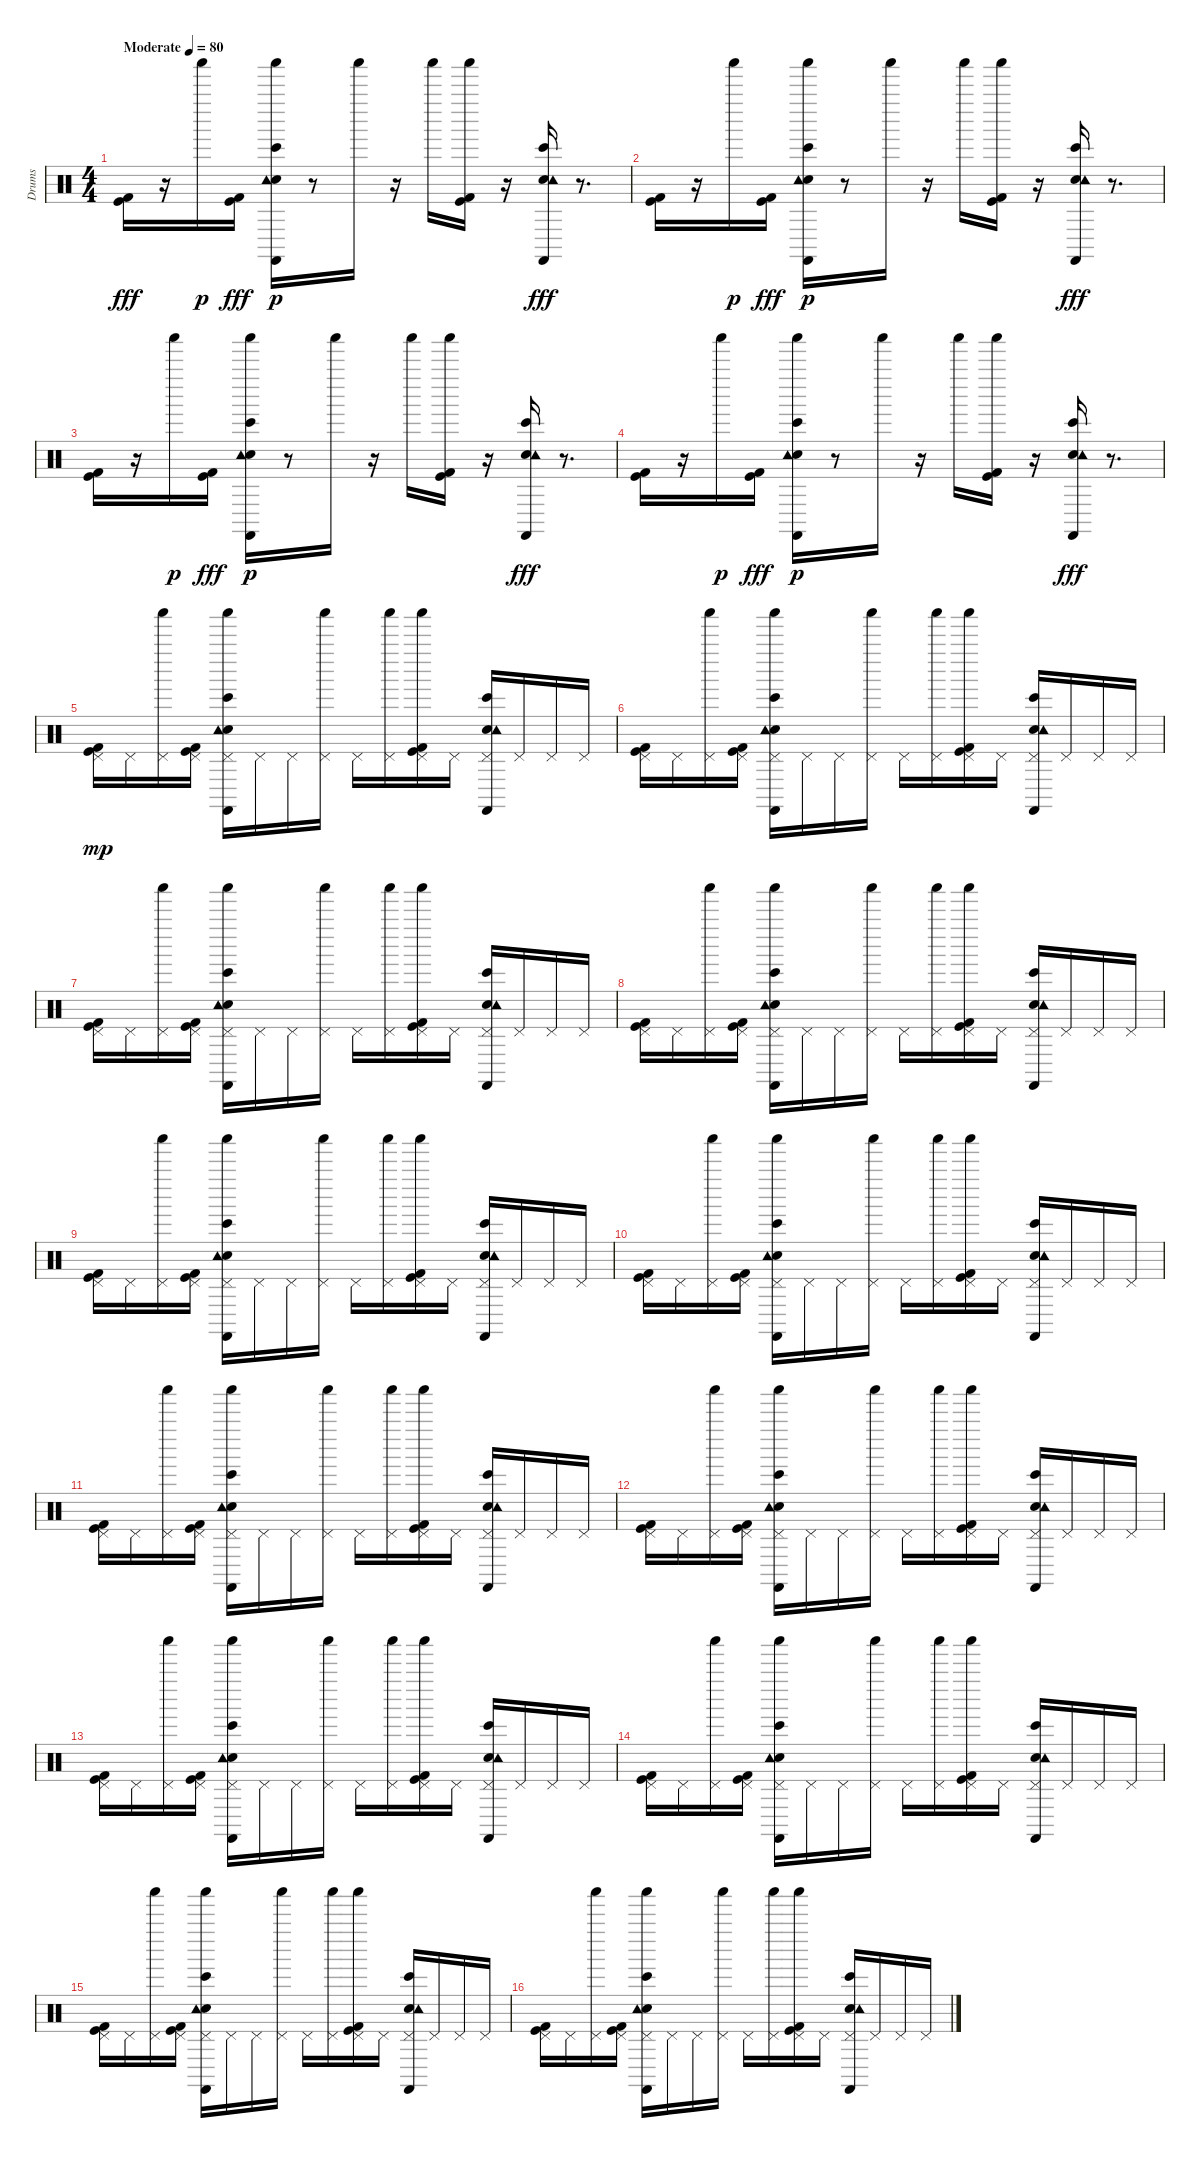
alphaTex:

\track ("Drums" "Drums") {instrument percussion}
\staff {score}
\articulation defaults
\ts (4 4)
\tempo (80 "Moderate")
\clef neutral
\ks c
("Kick (hit)" "Kick (hit) 2").16{dy fff} r.16 "Shaker (hit)".16{dy p} ("Kick (hit)" "Kick (hit) 2").16{dy fff} ("Castanets (hit)" "Hand Clap (hit)" "Shaker (hit)" "Tambourine (hit)" "Bongo High (hit)").16{dy p} r.8 "Shaker (hit)".16 r.16 "Shaker (hit)".16 ("Kick (hit)" "Kick (hit) 2" "Shaker (hit)").16 r.16 ("Castanets (hit)" "Hand Clap (hit)" "Tambourine (hit)" "Bongo High (hit)").16{dy fff} r.8{d} |
("Kick (hit)" "Kick (hit) 2").16 r.16 "Shaker (hit)".16{dy p} ("Kick (hit)" "Kick (hit) 2").16{dy fff} ("Castanets (hit)" "Hand Clap (hit)" "Shaker (hit)" "Tambourine (hit)" "Bongo High (hit)").16{dy p} r.8 "Shaker (hit)".16 r.16 "Shaker (hit)".16 ("Kick (hit)" "Kick (hit) 2" "Shaker (hit)").16 r.16 ("Castanets (hit)" "Hand Clap (hit)" "Tambourine (hit)" "Bongo High (hit)").16{dy fff} r.8{d} |
("Kick (hit)" "Kick (hit) 2").16 r.16 "Shaker (hit)".16{dy p} ("Kick (hit)" "Kick (hit) 2").16{dy fff} ("Castanets (hit)" "Hand Clap (hit)" "Shaker (hit)" "Tambourine (hit)" "Bongo High (hit)").16{dy p} r.8 "Shaker (hit)".16 r.16 "Shaker (hit)".16 ("Kick (hit)" "Kick (hit) 2" "Shaker (hit)").16 r.16 ("Castanets (hit)" "Hand Clap (hit)" "Tambourine (hit)" "Bongo High (hit)").16{dy fff} r.8{d} |
("Kick (hit)" "Kick (hit) 2").16 r.16 "Shaker (hit)".16{dy p} ("Kick (hit)" "Kick (hit) 2").16{dy fff} ("Castanets (hit)" "Hand Clap (hit)" "Shaker (hit)" "Tambourine (hit)" "Bongo High (hit)").16{dy p} r.8 "Shaker (hit)".16 r.16 "Shaker (hit)".16 ("Kick (hit)" "Kick (hit) 2" "Shaker (hit)").16 r.16 ("Castanets (hit)" "Hand Clap (hit)" "Tambourine (hit)" "Bongo High (hit)").16{dy fff} r.8{d} |
("Kick (hit)" "Kick (hit) 2" "Pedal Hi-Hat (hit)").16{dy mp} "Pedal Hi-Hat (hit)".16 ("Shaker (hit)" "Pedal Hi-Hat (hit)").16 ("Kick (hit)" "Kick (hit) 2" "Pedal Hi-Hat (hit)").16 ("Castanets (hit)" "Hand Clap (hit)" "Shaker (hit)" "Tambourine (hit)" "Bongo High (hit)" "Pedal Hi-Hat (hit)").16 "Pedal Hi-Hat (hit)".16 "Pedal Hi-Hat (hit)".16 ("Shaker (hit)" "Pedal Hi-Hat (hit)").16 "Pedal Hi-Hat (hit)".16 ("Shaker (hit)" "Pedal Hi-Hat (hit)").16 ("Kick (hit)" "Kick (hit) 2" "Shaker (hit)" "Pedal Hi-Hat (hit)").16 "Pedal Hi-Hat (hit)".16 ("Castanets (hit)" "Hand Clap (hit)" "Tambourine (hit)" "Bongo High (hit)" "Pedal Hi-Hat (hit)").16 "Pedal Hi-Hat (hit)".16 "Pedal Hi-Hat (hit)".16 "Pedal Hi-Hat (hit)".16 |
("Kick (hit)" "Kick (hit) 2" "Pedal Hi-Hat (hit)").16 "Pedal Hi-Hat (hit)".16 ("Shaker (hit)" "Pedal Hi-Hat (hit)").16 ("Kick (hit)" "Kick (hit) 2" "Pedal Hi-Hat (hit)").16 ("Castanets (hit)" "Hand Clap (hit)" "Shaker (hit)" "Tambourine (hit)" "Bongo High (hit)" "Pedal Hi-Hat (hit)").16 "Pedal Hi-Hat (hit)".16 "Pedal Hi-Hat (hit)".16 ("Shaker (hit)" "Pedal Hi-Hat (hit)").16 "Pedal Hi-Hat (hit)".16 ("Shaker (hit)" "Pedal Hi-Hat (hit)").16 ("Kick (hit)" "Kick (hit) 2" "Shaker (hit)" "Pedal Hi-Hat (hit)").16 "Pedal Hi-Hat (hit)".16 ("Castanets (hit)" "Hand Clap (hit)" "Tambourine (hit)" "Bongo High (hit)" "Pedal Hi-Hat (hit)").16 "Pedal Hi-Hat (hit)".16 "Pedal Hi-Hat (hit)".16 "Pedal Hi-Hat (hit)".16 |
("Kick (hit)" "Kick (hit) 2" "Pedal Hi-Hat (hit)").16 "Pedal Hi-Hat (hit)".16 ("Shaker (hit)" "Pedal Hi-Hat (hit)").16 ("Kick (hit)" "Kick (hit) 2" "Pedal Hi-Hat (hit)").16 ("Castanets (hit)" "Hand Clap (hit)" "Shaker (hit)" "Tambourine (hit)" "Bongo High (hit)" "Pedal Hi-Hat (hit)").16 "Pedal Hi-Hat (hit)".16 "Pedal Hi-Hat (hit)".16 ("Shaker (hit)" "Pedal Hi-Hat (hit)").16 "Pedal Hi-Hat (hit)".16 ("Shaker (hit)" "Pedal Hi-Hat (hit)").16 ("Kick (hit)" "Kick (hit) 2" "Shaker (hit)" "Pedal Hi-Hat (hit)").16 "Pedal Hi-Hat (hit)".16 ("Castanets (hit)" "Hand Clap (hit)" "Tambourine (hit)" "Bongo High (hit)" "Pedal Hi-Hat (hit)").16 "Pedal Hi-Hat (hit)".16 "Pedal Hi-Hat (hit)".16 "Pedal Hi-Hat (hit)".16 |
("Kick (hit)" "Kick (hit) 2" "Pedal Hi-Hat (hit)").16 "Pedal Hi-Hat (hit)".16 ("Shaker (hit)" "Pedal Hi-Hat (hit)").16 ("Kick (hit)" "Kick (hit) 2" "Pedal Hi-Hat (hit)").16 ("Castanets (hit)" "Hand Clap (hit)" "Shaker (hit)" "Tambourine (hit)" "Bongo High (hit)" "Pedal Hi-Hat (hit)").16 "Pedal Hi-Hat (hit)".16 "Pedal Hi-Hat (hit)".16 ("Shaker (hit)" "Pedal Hi-Hat (hit)").16 "Pedal Hi-Hat (hit)".16 ("Shaker (hit)" "Pedal Hi-Hat (hit)").16 ("Kick (hit)" "Kick (hit) 2" "Shaker (hit)" "Pedal Hi-Hat (hit)").16 "Pedal Hi-Hat (hit)".16 ("Castanets (hit)" "Hand Clap (hit)" "Tambourine (hit)" "Bongo High (hit)" "Pedal Hi-Hat (hit)").16 "Pedal Hi-Hat (hit)".16 "Pedal Hi-Hat (hit)".16 "Pedal Hi-Hat (hit)".16 |
("Kick (hit)" "Kick (hit) 2" "Pedal Hi-Hat (hit)").16 "Pedal Hi-Hat (hit)".16 ("Shaker (hit)" "Pedal Hi-Hat (hit)").16 ("Kick (hit)" "Kick (hit) 2" "Pedal Hi-Hat (hit)").16 ("Castanets (hit)" "Hand Clap (hit)" "Shaker (hit)" "Tambourine (hit)" "Bongo High (hit)" "Pedal Hi-Hat (hit)").16 "Pedal Hi-Hat (hit)".16 "Pedal Hi-Hat (hit)".16 ("Shaker (hit)" "Pedal Hi-Hat (hit)").16 "Pedal Hi-Hat (hit)".16 ("Shaker (hit)" "Pedal Hi-Hat (hit)").16 ("Kick (hit)" "Kick (hit) 2" "Shaker (hit)" "Pedal Hi-Hat (hit)").16 "Pedal Hi-Hat (hit)".16 ("Castanets (hit)" "Hand Clap (hit)" "Tambourine (hit)" "Bongo High (hit)" "Pedal Hi-Hat (hit)").16 "Pedal Hi-Hat (hit)".16 "Pedal Hi-Hat (hit)".16 "Pedal Hi-Hat (hit)".16 |
("Kick (hit)" "Kick (hit) 2" "Pedal Hi-Hat (hit)").16 "Pedal Hi-Hat (hit)".16 ("Shaker (hit)" "Pedal Hi-Hat (hit)").16 ("Kick (hit)" "Kick (hit) 2" "Pedal Hi-Hat (hit)").16 ("Castanets (hit)" "Hand Clap (hit)" "Shaker (hit)" "Tambourine (hit)" "Bongo High (hit)" "Pedal Hi-Hat (hit)").16 "Pedal Hi-Hat (hit)".16 "Pedal Hi-Hat (hit)".16 ("Shaker (hit)" "Pedal Hi-Hat (hit)").16 "Pedal Hi-Hat (hit)".16 ("Shaker (hit)" "Pedal Hi-Hat (hit)").16 ("Kick (hit)" "Kick (hit) 2" "Shaker (hit)" "Pedal Hi-Hat (hit)").16 "Pedal Hi-Hat (hit)".16 ("Castanets (hit)" "Hand Clap (hit)" "Tambourine (hit)" "Bongo High (hit)" "Pedal Hi-Hat (hit)").16 "Pedal Hi-Hat (hit)".16 "Pedal Hi-Hat (hit)".16 "Pedal Hi-Hat (hit)".16 |
("Kick (hit)" "Kick (hit) 2" "Pedal Hi-Hat (hit)").16 "Pedal Hi-Hat (hit)".16 ("Shaker (hit)" "Pedal Hi-Hat (hit)").16 ("Kick (hit)" "Kick (hit) 2" "Pedal Hi-Hat (hit)").16 ("Castanets (hit)" "Hand Clap (hit)" "Shaker (hit)" "Tambourine (hit)" "Bongo High (hit)" "Pedal Hi-Hat (hit)").16 "Pedal Hi-Hat (hit)".16 "Pedal Hi-Hat (hit)".16 ("Shaker (hit)" "Pedal Hi-Hat (hit)").16 "Pedal Hi-Hat (hit)".16 ("Shaker (hit)" "Pedal Hi-Hat (hit)").16 ("Kick (hit)" "Kick (hit) 2" "Shaker (hit)" "Pedal Hi-Hat (hit)").16 "Pedal Hi-Hat (hit)".16 ("Castanets (hit)" "Hand Clap (hit)" "Tambourine (hit)" "Bongo High (hit)" "Pedal Hi-Hat (hit)").16 "Pedal Hi-Hat (hit)".16 "Pedal Hi-Hat (hit)".16 "Pedal Hi-Hat (hit)".16 |
("Kick (hit)" "Kick (hit) 2" "Pedal Hi-Hat (hit)").16 "Pedal Hi-Hat (hit)".16 ("Shaker (hit)" "Pedal Hi-Hat (hit)").16 ("Kick (hit)" "Kick (hit) 2" "Pedal Hi-Hat (hit)").16 ("Castanets (hit)" "Hand Clap (hit)" "Shaker (hit)" "Tambourine (hit)" "Bongo High (hit)" "Pedal Hi-Hat (hit)").16 "Pedal Hi-Hat (hit)".16 "Pedal Hi-Hat (hit)".16 ("Shaker (hit)" "Pedal Hi-Hat (hit)").16 "Pedal Hi-Hat (hit)".16 ("Shaker (hit)" "Pedal Hi-Hat (hit)").16 ("Kick (hit)" "Kick (hit) 2" "Shaker (hit)" "Pedal Hi-Hat (hit)").16 "Pedal Hi-Hat (hit)".16 ("Castanets (hit)" "Hand Clap (hit)" "Tambourine (hit)" "Bongo High (hit)" "Pedal Hi-Hat (hit)").16 "Pedal Hi-Hat (hit)".16 "Pedal Hi-Hat (hit)".16 "Pedal Hi-Hat (hit)".16 |
("Kick (hit)" "Kick (hit) 2" "Pedal Hi-Hat (hit)").16 "Pedal Hi-Hat (hit)".16 ("Shaker (hit)" "Pedal Hi-Hat (hit)").16 ("Kick (hit)" "Kick (hit) 2" "Pedal Hi-Hat (hit)").16 ("Castanets (hit)" "Hand Clap (hit)" "Shaker (hit)" "Tambourine (hit)" "Bongo High (hit)" "Pedal Hi-Hat (hit)").16 "Pedal Hi-Hat (hit)".16 "Pedal Hi-Hat (hit)".16 ("Shaker (hit)" "Pedal Hi-Hat (hit)").16 "Pedal Hi-Hat (hit)".16 ("Shaker (hit)" "Pedal Hi-Hat (hit)").16 ("Kick (hit)" "Kick (hit) 2" "Shaker (hit)" "Pedal Hi-Hat (hit)").16 "Pedal Hi-Hat (hit)".16 ("Castanets (hit)" "Hand Clap (hit)" "Tambourine (hit)" "Bongo High (hit)" "Pedal Hi-Hat (hit)").16 "Pedal Hi-Hat (hit)".16 "Pedal Hi-Hat (hit)".16 "Pedal Hi-Hat (hit)".16 |
("Kick (hit)" "Kick (hit) 2" "Pedal Hi-Hat (hit)").16 "Pedal Hi-Hat (hit)".16 ("Shaker (hit)" "Pedal Hi-Hat (hit)").16 ("Kick (hit)" "Kick (hit) 2" "Pedal Hi-Hat (hit)").16 ("Castanets (hit)" "Hand Clap (hit)" "Shaker (hit)" "Tambourine (hit)" "Bongo High (hit)" "Pedal Hi-Hat (hit)").16 "Pedal Hi-Hat (hit)".16 "Pedal Hi-Hat (hit)".16 ("Shaker (hit)" "Pedal Hi-Hat (hit)").16 "Pedal Hi-Hat (hit)".16 ("Shaker (hit)" "Pedal Hi-Hat (hit)").16 ("Kick (hit)" "Kick (hit) 2" "Shaker (hit)" "Pedal Hi-Hat (hit)").16 "Pedal Hi-Hat (hit)".16 ("Castanets (hit)" "Hand Clap (hit)" "Tambourine (hit)" "Bongo High (hit)" "Pedal Hi-Hat (hit)").16 "Pedal Hi-Hat (hit)".16 "Pedal Hi-Hat (hit)".16 "Pedal Hi-Hat (hit)".16 |
("Kick (hit)" "Kick (hit) 2" "Pedal Hi-Hat (hit)").16 "Pedal Hi-Hat (hit)".16 ("Shaker (hit)" "Pedal Hi-Hat (hit)").16 ("Kick (hit)" "Kick (hit) 2" "Pedal Hi-Hat (hit)").16 ("Castanets (hit)" "Hand Clap (hit)" "Shaker (hit)" "Tambourine (hit)" "Bongo High (hit)" "Pedal Hi-Hat (hit)").16 "Pedal Hi-Hat (hit)".16 "Pedal Hi-Hat (hit)".16 ("Shaker (hit)" "Pedal Hi-Hat (hit)").16 "Pedal Hi-Hat (hit)".16 ("Shaker (hit)" "Pedal Hi-Hat (hit)").16 ("Kick (hit)" "Kick (hit) 2" "Shaker (hit)" "Pedal Hi-Hat (hit)").16 "Pedal Hi-Hat (hit)".16 ("Castanets (hit)" "Hand Clap (hit)" "Tambourine (hit)" "Bongo High (hit)" "Pedal Hi-Hat (hit)").16 "Pedal Hi-Hat (hit)".16 "Pedal Hi-Hat (hit)".16 "Pedal Hi-Hat (hit)".16 |
("Kick (hit)" "Kick (hit) 2" "Pedal Hi-Hat (hit)").16 "Pedal Hi-Hat (hit)".16 ("Shaker (hit)" "Pedal Hi-Hat (hit)").16 ("Kick (hit)" "Kick (hit) 2" "Pedal Hi-Hat (hit)").16 ("Castanets (hit)" "Hand Clap (hit)" "Shaker (hit)" "Tambourine (hit)" "Bongo High (hit)" "Pedal Hi-Hat (hit)").16 "Pedal Hi-Hat (hit)".16 "Pedal Hi-Hat (hit)".16 ("Shaker (hit)" "Pedal Hi-Hat (hit)").16 "Pedal Hi-Hat (hit)".16 ("Shaker (hit)" "Pedal Hi-Hat (hit)").16 ("Kick (hit)" "Kick (hit) 2" "Shaker (hit)" "Pedal Hi-Hat (hit)").16 "Pedal Hi-Hat (hit)".16 ("Castanets (hit)" "Hand Clap (hit)" "Tambourine (hit)" "Bongo High (hit)" "Pedal Hi-Hat (hit)").16 "Pedal Hi-Hat (hit)".16 "Pedal Hi-Hat (hit)".16 "Pedal Hi-Hat (hit)".16
